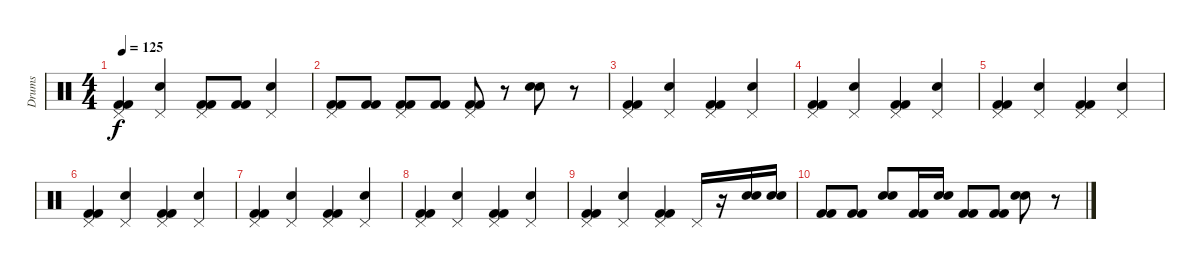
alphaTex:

\track ("Drums" "Drums") {instrument percussion}
\staff {score}
\articulation defaults
\ts (4 4)
\tempo 125
\clef neutral
\ks c
("Pedal Hi-Hat (hit)" "Kick (hit) 2" "Kick (hit) 2").4{dy f} ("Pedal Hi-Hat (hit)" "Snare (hit) 2").4 ("Pedal Hi-Hat (hit)" "Kick (hit) 2" "Kick (hit) 2").8 ("Kick (hit) 2" "Kick (hit) 2").8 ("Pedal Hi-Hat (hit)" "Snare (hit) 2").4 |
("Pedal Hi-Hat (hit)" "Kick (hit) 2" "Kick (hit) 2").8 ("Kick (hit) 2" "Kick (hit) 2").8 ("Pedal Hi-Hat (hit)" "Kick (hit) 2" "Kick (hit) 2").8 ("Kick (hit) 2" "Kick (hit) 2").8 ("Pedal Hi-Hat (hit)" "Kick (hit) 2" "Kick (hit) 2").8 r.8 ("Hand Clap (hit)" "Snare (hit) 2").8 r.8 |
("Pedal Hi-Hat (hit)" "Kick (hit) 2" "Kick (hit) 2").4 ("Pedal Hi-Hat (hit)" "Snare (hit) 2").4 ("Pedal Hi-Hat (hit)" "Kick (hit) 2" "Kick (hit) 2").4 ("Pedal Hi-Hat (hit)" "Snare (hit) 2").4 |
("Pedal Hi-Hat (hit)" "Kick (hit) 2" "Kick (hit) 2").4 ("Pedal Hi-Hat (hit)" "Snare (hit) 2").4 ("Pedal Hi-Hat (hit)" "Kick (hit) 2" "Kick (hit) 2").4 ("Pedal Hi-Hat (hit)" "Snare (hit) 2").4 |
("Pedal Hi-Hat (hit)" "Kick (hit) 2" "Kick (hit) 2").4 ("Pedal Hi-Hat (hit)" "Snare (hit) 2").4 ("Pedal Hi-Hat (hit)" "Kick (hit) 2" "Kick (hit) 2").4 ("Pedal Hi-Hat (hit)" "Snare (hit) 2").4 |
("Pedal Hi-Hat (hit)" "Kick (hit) 2" "Kick (hit) 2").4 ("Pedal Hi-Hat (hit)" "Snare (hit) 2").4 ("Pedal Hi-Hat (hit)" "Kick (hit) 2" "Kick (hit) 2").4 ("Pedal Hi-Hat (hit)" "Snare (hit) 2").4 |
("Pedal Hi-Hat (hit)" "Kick (hit) 2" "Kick (hit) 2").4 ("Pedal Hi-Hat (hit)" "Snare (hit) 2").4 ("Pedal Hi-Hat (hit)" "Kick (hit) 2" "Kick (hit) 2").4 ("Pedal Hi-Hat (hit)" "Snare (hit) 2").4 |
("Pedal Hi-Hat (hit)" "Kick (hit) 2" "Kick (hit) 2").4 ("Pedal Hi-Hat (hit)" "Snare (hit) 2").4 ("Pedal Hi-Hat (hit)" "Kick (hit) 2" "Kick (hit) 2").4 ("Pedal Hi-Hat (hit)" "Snare (hit) 2").4 |
("Pedal Hi-Hat (hit)" "Kick (hit) 2" "Kick (hit) 2").4 ("Pedal Hi-Hat (hit)" "Snare (hit) 2").4 ("Pedal Hi-Hat (hit)" "Kick (hit) 2" "Kick (hit) 2").4 "Pedal Hi-Hat (hit)".16 r.16 ("Hand Clap (hit)" "Snare (hit) 2").16 ("Hand Clap (hit)" "Snare (hit) 2").16 |
("Kick (hit) 2" "Kick (hit) 2").8 ("Kick (hit) 2" "Kick (hit) 2").8 ("Hand Clap (hit)" "Snare (hit) 2").8 ("Kick (hit) 2" "Kick (hit) 2").16 ("Hand Clap (hit)" "Snare (hit) 2").16 ("Kick (hit) 2" "Kick (hit) 2").8 ("Kick (hit) 2" "Kick (hit) 2").8 ("Hand Clap (hit)" "Snare (hit) 2").8 r.8
